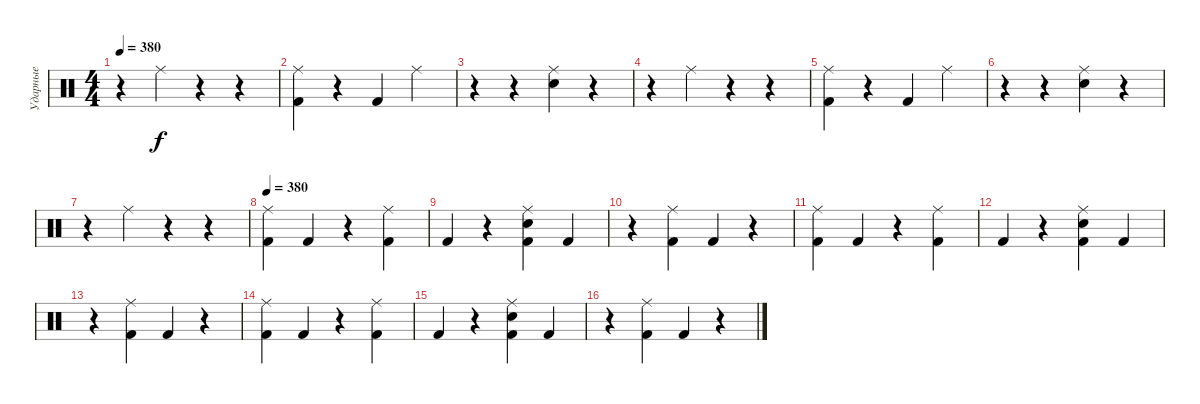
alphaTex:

\track ("Ударные" "Ударные") {instrument percussion}
\staff {score}
\articulation defaults
\ts (4 4)
\tempo 380
\clef neutral
\ks c
r.4{dy f} "Ride (middle)".4 r.4 r.4 |
("Kick (hit) 2" "Ride (middle)").4 r.4 "Kick (hit) 2".4 "Ride (middle)".4 |
r.4 r.4 ("Electric Snare (hit)" "Ride (middle)").4 r.4 |
r.4 "Ride (middle)".4 r.4 r.4 |
("Kick (hit) 2" "Ride (middle)").4 r.4 "Kick (hit) 2".4 "Ride (middle)".4 |
r.4 r.4 ("Electric Snare (hit)" "Ride (middle)").4 r.4 |
r.4 "Ride (middle)".4 r.4 r.4 |
\tempo 380
("Kick (hit) 2" "Ride (middle)").4 "Kick (hit) 2".4 r.4 ("Ride (middle)" "Kick (hit) 2").4 |
"Kick (hit) 2".4 r.4 ("Electric Snare (hit)" "Ride (middle)" "Kick (hit) 2").4 "Kick (hit) 2".4 |
r.4 ("Ride (middle)" "Kick (hit) 2").4 "Kick (hit) 2".4 r.4 |
("Kick (hit) 2" "Ride (middle)").4 "Kick (hit) 2".4 r.4 ("Ride (middle)" "Kick (hit) 2").4 |
"Kick (hit) 2".4 r.4 ("Electric Snare (hit)" "Ride (middle)" "Kick (hit) 2").4 "Kick (hit) 2".4 |
r.4 ("Ride (middle)" "Kick (hit) 2").4 "Kick (hit) 2".4 r.4 |
("Kick (hit) 2" "Ride (middle)").4 "Kick (hit) 2".4 r.4 ("Ride (middle)" "Kick (hit) 2").4 |
"Kick (hit) 2".4 r.4 ("Electric Snare (hit)" "Ride (middle)" "Kick (hit) 2").4 "Kick (hit) 2".4 |
r.4 ("Ride (middle)" "Kick (hit) 2").4 "Kick (hit) 2".4 r.4
